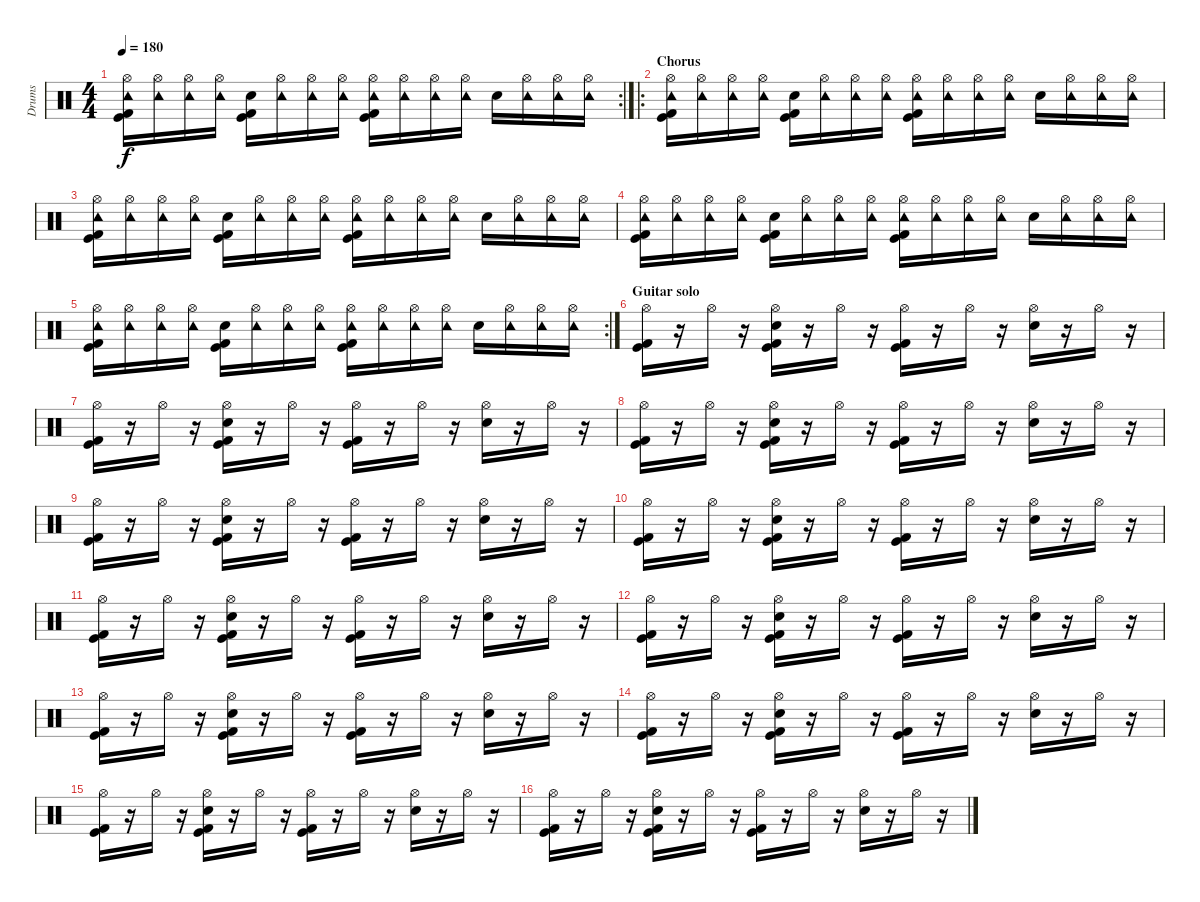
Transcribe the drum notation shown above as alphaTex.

\track ("Drums" "Drums") {instrument percussion}
\staff {score}
\articulation defaults
\rc 2
\ts (4 4)
\tempo 180
\clef neutral
\ks c
("Hi-Hat (open)" "Tambourine (hit)" "Kick (hit) 2" "Kick (hit)").16{dy f} ("Hi-Hat (open)" "Tambourine (hit)").16 ("Hi-Hat (open)" "Tambourine (hit)").16 ("Hi-Hat (open)" "Tambourine (hit)").16 ("Electric Snare (hit)" "Kick (hit) 2" "Kick (hit)").16 ("Hi-Hat (open)" "Tambourine (hit)").16 ("Hi-Hat (open)" "Tambourine (hit)").16 ("Hi-Hat (open)" "Tambourine (hit)").16 ("Hi-Hat (open)" "Tambourine (hit)" "Kick (hit) 2" "Kick (hit)").16 ("Hi-Hat (open)" "Tambourine (hit)").16 ("Hi-Hat (open)" "Tambourine (hit)").16 ("Hi-Hat (open)" "Tambourine (hit)").16 "Electric Snare (hit)".16 ("Hi-Hat (open)" "Tambourine (hit)").16 ("Hi-Hat (open)" "Tambourine (hit)").16 ("Hi-Hat (open)" "Tambourine (hit)").16 |
\ro
\section ("" "Chorus")
("Hi-Hat (open)" "Tambourine (hit)" "Kick (hit) 2" "Kick (hit)").16 ("Hi-Hat (open)" "Tambourine (hit)").16 ("Hi-Hat (open)" "Tambourine (hit)").16 ("Hi-Hat (open)" "Tambourine (hit)").16 ("Electric Snare (hit)" "Kick (hit) 2" "Kick (hit)").16 ("Hi-Hat (open)" "Tambourine (hit)").16 ("Hi-Hat (open)" "Tambourine (hit)").16 ("Hi-Hat (open)" "Tambourine (hit)").16 ("Hi-Hat (open)" "Tambourine (hit)" "Kick (hit) 2" "Kick (hit)").16 ("Hi-Hat (open)" "Tambourine (hit)").16 ("Hi-Hat (open)" "Tambourine (hit)").16 ("Hi-Hat (open)" "Tambourine (hit)").16 "Electric Snare (hit)".16 ("Hi-Hat (open)" "Tambourine (hit)").16 ("Hi-Hat (open)" "Tambourine (hit)").16 ("Hi-Hat (open)" "Tambourine (hit)").16 |
("Hi-Hat (open)" "Tambourine (hit)" "Kick (hit) 2" "Kick (hit)").16 ("Hi-Hat (open)" "Tambourine (hit)").16 ("Hi-Hat (open)" "Tambourine (hit)").16 ("Hi-Hat (open)" "Tambourine (hit)").16 ("Electric Snare (hit)" "Kick (hit) 2" "Kick (hit)").16 ("Hi-Hat (open)" "Tambourine (hit)").16 ("Hi-Hat (open)" "Tambourine (hit)").16 ("Hi-Hat (open)" "Tambourine (hit)").16 ("Hi-Hat (open)" "Tambourine (hit)" "Kick (hit) 2" "Kick (hit)").16 ("Hi-Hat (open)" "Tambourine (hit)").16 ("Hi-Hat (open)" "Tambourine (hit)").16 ("Hi-Hat (open)" "Tambourine (hit)").16 "Electric Snare (hit)".16 ("Hi-Hat (open)" "Tambourine (hit)").16 ("Hi-Hat (open)" "Tambourine (hit)").16 ("Hi-Hat (open)" "Tambourine (hit)").16 |
("Hi-Hat (open)" "Tambourine (hit)" "Kick (hit) 2" "Kick (hit)").16 ("Hi-Hat (open)" "Tambourine (hit)").16 ("Hi-Hat (open)" "Tambourine (hit)").16 ("Hi-Hat (open)" "Tambourine (hit)").16 ("Electric Snare (hit)" "Kick (hit) 2" "Kick (hit)").16 ("Hi-Hat (open)" "Tambourine (hit)").16 ("Hi-Hat (open)" "Tambourine (hit)").16 ("Hi-Hat (open)" "Tambourine (hit)").16 ("Hi-Hat (open)" "Tambourine (hit)" "Kick (hit) 2" "Kick (hit)").16 ("Hi-Hat (open)" "Tambourine (hit)").16 ("Hi-Hat (open)" "Tambourine (hit)").16 ("Hi-Hat (open)" "Tambourine (hit)").16 "Electric Snare (hit)".16 ("Hi-Hat (open)" "Tambourine (hit)").16 ("Hi-Hat (open)" "Tambourine (hit)").16 ("Hi-Hat (open)" "Tambourine (hit)").16 |
\rc 2
("Hi-Hat (open)" "Tambourine (hit)" "Kick (hit) 2" "Kick (hit)").16 ("Hi-Hat (open)" "Tambourine (hit)").16 ("Hi-Hat (open)" "Tambourine (hit)").16 ("Hi-Hat (open)" "Tambourine (hit)").16 ("Electric Snare (hit)" "Kick (hit) 2" "Kick (hit)").16 ("Hi-Hat (open)" "Tambourine (hit)").16 ("Hi-Hat (open)" "Tambourine (hit)").16 ("Hi-Hat (open)" "Tambourine (hit)").16 ("Hi-Hat (open)" "Tambourine (hit)" "Kick (hit) 2" "Kick (hit)").16 ("Hi-Hat (open)" "Tambourine (hit)").16 ("Hi-Hat (open)" "Tambourine (hit)").16 ("Hi-Hat (open)" "Tambourine (hit)").16 "Electric Snare (hit)".16 ("Hi-Hat (open)" "Tambourine (hit)").16 ("Hi-Hat (open)" "Tambourine (hit)").16 ("Hi-Hat (open)" "Tambourine (hit)").16 |
\section ("" "Guitar solo")
("Hi-Hat (open)" "Kick (hit) 2" "Kick (hit)").16 r.16 "Hi-Hat (open)".16 r.16 ("Hi-Hat (open)" "Electric Snare (hit)" "Kick (hit) 2" "Kick (hit)").16 r.16 "Hi-Hat (open)".16 r.16 ("Hi-Hat (open)" "Kick (hit) 2" "Kick (hit)").16 r.16 "Hi-Hat (open)".16 r.16 ("Hi-Hat (open)" "Electric Snare (hit)").16 r.16 "Hi-Hat (open)".16 r.16 |
("Hi-Hat (open)" "Kick (hit) 2" "Kick (hit)").16 r.16 "Hi-Hat (open)".16 r.16 ("Hi-Hat (open)" "Electric Snare (hit)" "Kick (hit) 2" "Kick (hit)").16 r.16 "Hi-Hat (open)".16 r.16 ("Hi-Hat (open)" "Kick (hit) 2" "Kick (hit)").16 r.16 "Hi-Hat (open)".16 r.16 ("Hi-Hat (open)" "Electric Snare (hit)").16 r.16 "Hi-Hat (open)".16 r.16 |
("Hi-Hat (open)" "Kick (hit) 2" "Kick (hit)").16 r.16 "Hi-Hat (open)".16 r.16 ("Hi-Hat (open)" "Electric Snare (hit)" "Kick (hit) 2" "Kick (hit)").16 r.16 "Hi-Hat (open)".16 r.16 ("Hi-Hat (open)" "Kick (hit) 2" "Kick (hit)").16 r.16 "Hi-Hat (open)".16 r.16 ("Hi-Hat (open)" "Electric Snare (hit)").16 r.16 "Hi-Hat (open)".16 r.16 |
("Hi-Hat (open)" "Kick (hit) 2" "Kick (hit)").16 r.16 "Hi-Hat (open)".16 r.16 ("Hi-Hat (open)" "Electric Snare (hit)" "Kick (hit) 2" "Kick (hit)").16 r.16 "Hi-Hat (open)".16 r.16 ("Hi-Hat (open)" "Kick (hit) 2" "Kick (hit)").16 r.16 "Hi-Hat (open)".16 r.16 ("Hi-Hat (open)" "Electric Snare (hit)").16 r.16 "Hi-Hat (open)".16 r.16 |
("Hi-Hat (open)" "Kick (hit) 2" "Kick (hit)").16 r.16 "Hi-Hat (open)".16 r.16 ("Hi-Hat (open)" "Electric Snare (hit)" "Kick (hit) 2" "Kick (hit)").16 r.16 "Hi-Hat (open)".16 r.16 ("Hi-Hat (open)" "Kick (hit) 2" "Kick (hit)").16 r.16 "Hi-Hat (open)".16 r.16 ("Hi-Hat (open)" "Electric Snare (hit)").16 r.16 "Hi-Hat (open)".16 r.16 |
("Hi-Hat (open)" "Kick (hit) 2" "Kick (hit)").16 r.16 "Hi-Hat (open)".16 r.16 ("Hi-Hat (open)" "Electric Snare (hit)" "Kick (hit) 2" "Kick (hit)").16 r.16 "Hi-Hat (open)".16 r.16 ("Hi-Hat (open)" "Kick (hit) 2" "Kick (hit)").16 r.16 "Hi-Hat (open)".16 r.16 ("Hi-Hat (open)" "Electric Snare (hit)").16 r.16 "Hi-Hat (open)".16 r.16 |
("Hi-Hat (open)" "Kick (hit) 2" "Kick (hit)").16 r.16 "Hi-Hat (open)".16 r.16 ("Hi-Hat (open)" "Electric Snare (hit)" "Kick (hit) 2" "Kick (hit)").16 r.16 "Hi-Hat (open)".16 r.16 ("Hi-Hat (open)" "Kick (hit) 2" "Kick (hit)").16 r.16 "Hi-Hat (open)".16 r.16 ("Hi-Hat (open)" "Electric Snare (hit)").16 r.16 "Hi-Hat (open)".16 r.16 |
("Hi-Hat (open)" "Kick (hit) 2" "Kick (hit)").16 r.16 "Hi-Hat (open)".16 r.16 ("Hi-Hat (open)" "Electric Snare (hit)" "Kick (hit) 2" "Kick (hit)").16 r.16 "Hi-Hat (open)".16 r.16 ("Hi-Hat (open)" "Kick (hit) 2" "Kick (hit)").16 r.16 "Hi-Hat (open)".16 r.16 ("Hi-Hat (open)" "Electric Snare (hit)").16 r.16 "Hi-Hat (open)".16 r.16 |
("Hi-Hat (open)" "Kick (hit) 2" "Kick (hit)").16 r.16 "Hi-Hat (open)".16 r.16 ("Hi-Hat (open)" "Electric Snare (hit)" "Kick (hit) 2" "Kick (hit)").16 r.16 "Hi-Hat (open)".16 r.16 ("Hi-Hat (open)" "Kick (hit) 2" "Kick (hit)").16 r.16 "Hi-Hat (open)".16 r.16 ("Hi-Hat (open)" "Electric Snare (hit)").16 r.16 "Hi-Hat (open)".16 r.16 |
("Hi-Hat (open)" "Kick (hit) 2" "Kick (hit)").16 r.16 "Hi-Hat (open)".16 r.16 ("Hi-Hat (open)" "Electric Snare (hit)" "Kick (hit) 2" "Kick (hit)").16 r.16 "Hi-Hat (open)".16 r.16 ("Hi-Hat (open)" "Kick (hit) 2" "Kick (hit)").16 r.16 "Hi-Hat (open)".16 r.16 ("Hi-Hat (open)" "Electric Snare (hit)").16 r.16 "Hi-Hat (open)".16 r.16 |
("Hi-Hat (open)" "Kick (hit) 2" "Kick (hit)").16 r.16 "Hi-Hat (open)".16 r.16 ("Hi-Hat (open)" "Electric Snare (hit)" "Kick (hit) 2" "Kick (hit)").16 r.16 "Hi-Hat (open)".16 r.16 ("Hi-Hat (open)" "Kick (hit) 2" "Kick (hit)").16 r.16 "Hi-Hat (open)".16 r.16 ("Hi-Hat (open)" "Electric Snare (hit)").16 r.16 "Hi-Hat (open)".16 r.16
